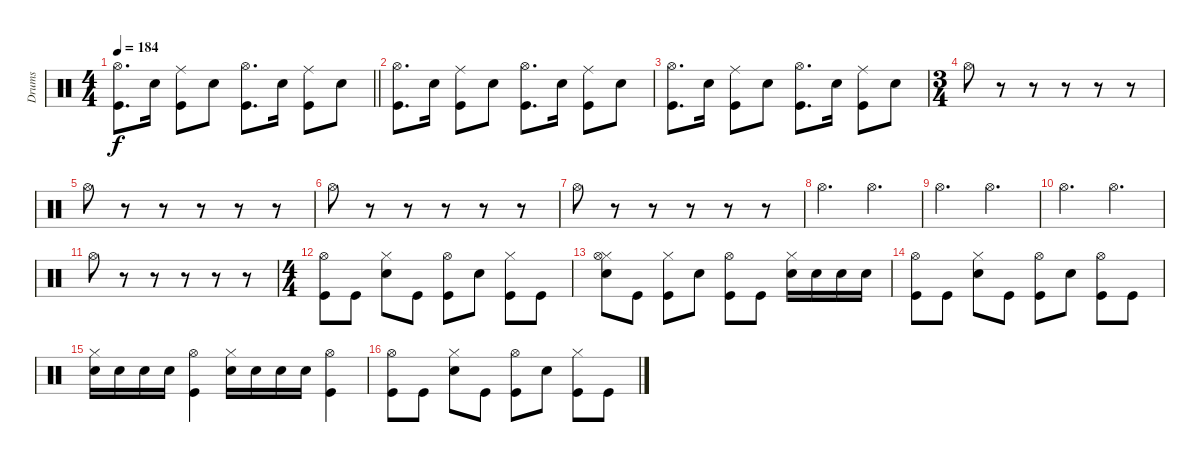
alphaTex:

\track (" Drums" " Drums") {instrument percussion}
\staff {score}
\articulation defaults
\ts (4 4)
\tempo 184
\clef neutral
\barLineRight lightlight
\ks c
("Kick (hit)" "Hi-Hat (open)").8{d dy f} "Snare (hit) 2".16 ("Kick (hit)" "Ride (middle)").8 "Snare (hit) 2".8 ("Kick (hit)" "Hi-Hat (open)").8{d} "Snare (hit) 2".16 ("Kick (hit)" "Ride (middle)").8 "Snare (hit) 2".8 |
("Kick (hit)" "Hi-Hat (open)").8{d} "Snare (hit) 2".16 ("Kick (hit)" "Ride (middle)").8 "Snare (hit) 2".8 ("Kick (hit)" "Hi-Hat (open)").8{d} "Snare (hit) 2".16 ("Kick (hit)" "Ride (middle)").8 "Snare (hit) 2".8 |
("Kick (hit)" "Hi-Hat (open)").8{d} "Snare (hit) 2".16 ("Kick (hit)" "Ride (middle)").8 "Snare (hit) 2".8 ("Kick (hit)" "Hi-Hat (open)").8{d} "Snare (hit) 2".16 ("Kick (hit)" "Ride (middle)").8 "Snare (hit) 2".8 |
\ts (3 4)
"Hi-Hat (open)".8 r.8 r.8 r.8 r.8 r.8 |
"Hi-Hat (open)".8 r.8 r.8 r.8 r.8 r.8 |
"Hi-Hat (open)".8 r.8 r.8 r.8 r.8 r.8 |
"Hi-Hat (open)".8 r.8 r.8 r.8 r.8 r.8 |
"Hi-Hat (open)".4{d} "Hi-Hat (open)".4{d} |
"Hi-Hat (open)".4{d} "Hi-Hat (open)".4{d} |
"Hi-Hat (open)".4{d} "Hi-Hat (open)".4{d} |
"Hi-Hat (open)".8 r.8 r.8 r.8 r.8 r.8 |
\ts (4 4)
("Hi-Hat (open)" "Kick (hit)").8 "Kick (hit)".8 ("Snare (hit) 2" "Hi-Hat (closed)").8 "Kick (hit)".8 ("Kick (hit)" "Hi-Hat (open)").8 "Snare (hit) 2".8 ("Kick (hit)" "Hi-Hat (closed)").8 "Kick (hit)".8 |
("Snare (hit) 2" "Hi-Hat (closed)" "Hi-Hat (open)").8 "Kick (hit)".8 ("Kick (hit)" "Hi-Hat (closed)").8 "Snare (hit) 2".8 ("Kick (hit)" "Hi-Hat (open)").8 "Kick (hit)".8 ("Snare (hit) 2" "Hi-Hat (closed)").16 "Snare (hit) 2".16 "Snare (hit) 2".16 "Snare (hit) 2".16 |
("Hi-Hat (open)" "Kick (hit)").8 "Kick (hit)".8 ("Hi-Hat (closed)" "Snare (hit) 2").8 "Kick (hit)".8 ("Kick (hit)" "Hi-Hat (open)").8 "Snare (hit) 2".8 ("Kick (hit)" "Hi-Hat (open)").8 "Kick (hit)".8 |
("Hi-Hat (closed)" "Snare (hit) 2").16 "Snare (hit) 2".16 "Snare (hit) 2".16 "Snare (hit) 2".16 ("Hi-Hat (open)" "Kick (hit)").4 ("Hi-Hat (closed)" "Snare (hit) 2").16 "Snare (hit) 2".16 "Snare (hit) 2".16 "Snare (hit) 2".16 ("Hi-Hat (open)" "Kick (hit)").4 |
("Hi-Hat (open)" "Kick (hit)").8 "Kick (hit)".8 ("Snare (hit) 2" "Hi-Hat (closed)").8 "Kick (hit)".8 ("Kick (hit)" "Hi-Hat (open)").8 "Snare (hit) 2".8 ("Kick (hit)" "Hi-Hat (closed)").8 "Kick (hit)".8
